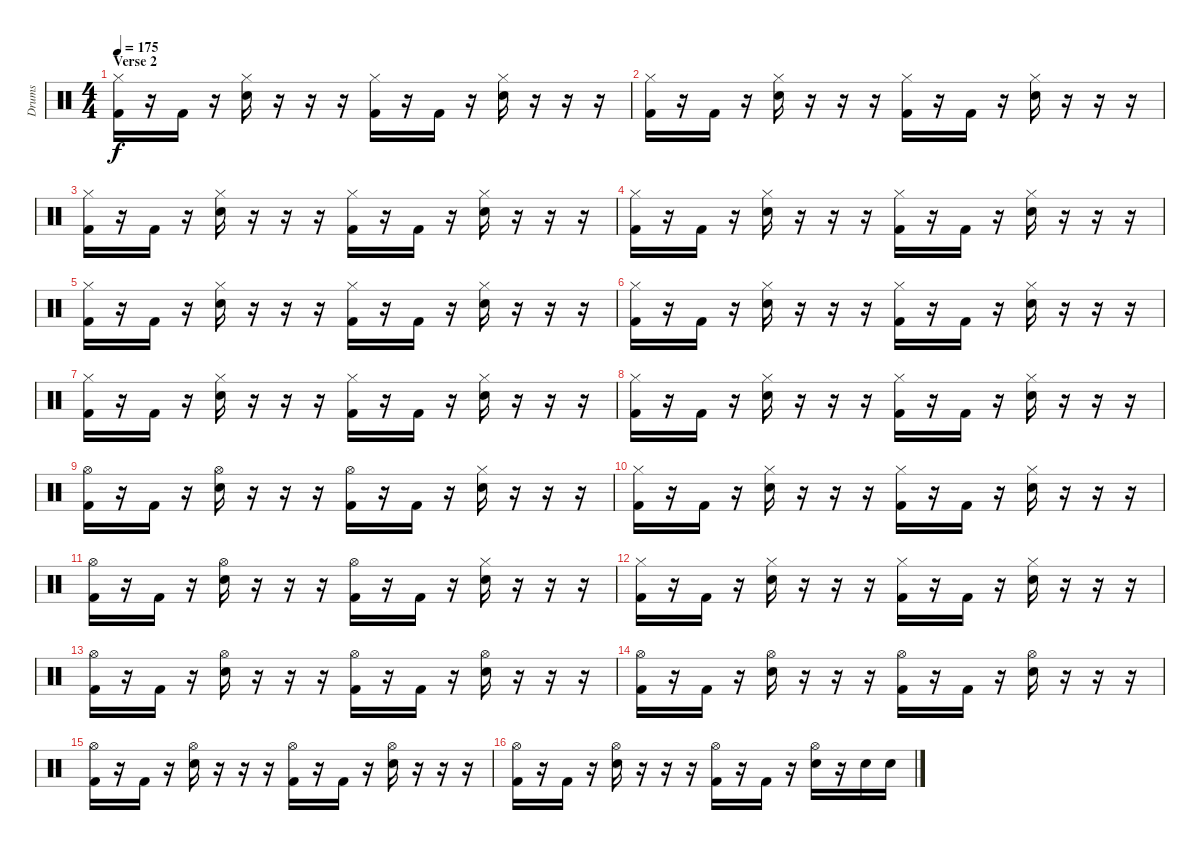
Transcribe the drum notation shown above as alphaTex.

\track ("Drums" "Drums") {instrument percussion}
\staff {score}
\articulation defaults
\ts (4 4)
\section ("" "Verse 2")
\tempo 175
\clef neutral
\ks c
("Hi-Hat (closed)" "Kick (hit) 2").16{dy f} r.16 "Kick (hit) 2".16 r.16 ("Hi-Hat (closed)" "Snare (hit) 2").16 r.16 r.16 r.16 ("Hi-Hat (closed)" "Kick (hit) 2").16 r.16 "Kick (hit) 2".16 r.16 ("Hi-Hat (closed)" "Snare (hit) 2").16 r.16 r.16 r.16 |
("Hi-Hat (closed)" "Kick (hit) 2").16 r.16 "Kick (hit) 2".16 r.16 ("Hi-Hat (closed)" "Snare (hit) 2").16 r.16 r.16 r.16 ("Hi-Hat (closed)" "Kick (hit) 2").16 r.16 "Kick (hit) 2".16 r.16 ("Hi-Hat (closed)" "Snare (hit) 2").16 r.16 r.16 r.16 |
("Hi-Hat (closed)" "Kick (hit) 2").16 r.16 "Kick (hit) 2".16 r.16 ("Hi-Hat (closed)" "Snare (hit) 2").16 r.16 r.16 r.16 ("Hi-Hat (closed)" "Kick (hit) 2").16 r.16 "Kick (hit) 2".16 r.16 ("Hi-Hat (closed)" "Snare (hit) 2").16 r.16 r.16 r.16 |
("Hi-Hat (closed)" "Kick (hit) 2").16 r.16 "Kick (hit) 2".16 r.16 ("Hi-Hat (closed)" "Snare (hit) 2").16 r.16 r.16 r.16 ("Hi-Hat (closed)" "Kick (hit) 2").16 r.16 "Kick (hit) 2".16 r.16 ("Hi-Hat (closed)" "Snare (hit) 2").16 r.16 r.16 r.16 |
("Hi-Hat (closed)" "Kick (hit) 2").16 r.16 "Kick (hit) 2".16 r.16 ("Hi-Hat (closed)" "Snare (hit) 2").16 r.16 r.16 r.16 ("Hi-Hat (closed)" "Kick (hit) 2").16 r.16 "Kick (hit) 2".16 r.16 ("Hi-Hat (closed)" "Snare (hit) 2").16 r.16 r.16 r.16 |
("Hi-Hat (closed)" "Kick (hit) 2").16 r.16 "Kick (hit) 2".16 r.16 ("Hi-Hat (closed)" "Snare (hit) 2").16 r.16 r.16 r.16 ("Hi-Hat (closed)" "Kick (hit) 2").16 r.16 "Kick (hit) 2".16 r.16 ("Hi-Hat (closed)" "Snare (hit) 2").16 r.16 r.16 r.16 |
("Hi-Hat (closed)" "Kick (hit) 2").16 r.16 "Kick (hit) 2".16 r.16 ("Hi-Hat (closed)" "Snare (hit) 2").16 r.16 r.16 r.16 ("Hi-Hat (closed)" "Kick (hit) 2").16 r.16 "Kick (hit) 2".16 r.16 ("Hi-Hat (closed)" "Snare (hit) 2").16 r.16 r.16 r.16 |
("Hi-Hat (closed)" "Kick (hit) 2").16 r.16 "Kick (hit) 2".16 r.16 ("Hi-Hat (closed)" "Snare (hit) 2").16 r.16 r.16 r.16 ("Hi-Hat (closed)" "Kick (hit) 2").16 r.16 "Kick (hit) 2".16 r.16 ("Hi-Hat (closed)" "Snare (hit) 2").16 r.16 r.16 r.16 |
("Hi-Hat (open)" "Kick (hit) 2").16 r.16 "Kick (hit) 2".16 r.16 ("Hi-Hat (open)" "Snare (hit) 2").16 r.16 r.16 r.16 ("Hi-Hat (open)" "Kick (hit) 2").16 r.16 "Kick (hit) 2".16 r.16 ("Hi-Hat (closed)" "Snare (hit) 2").16 r.16 r.16 r.16 |
("Hi-Hat (closed)" "Kick (hit) 2").16 r.16 "Kick (hit) 2".16 r.16 ("Hi-Hat (closed)" "Snare (hit) 2").16 r.16 r.16 r.16 ("Hi-Hat (closed)" "Kick (hit) 2").16 r.16 "Kick (hit) 2".16 r.16 ("Hi-Hat (closed)" "Snare (hit) 2").16 r.16 r.16 r.16 |
("Hi-Hat (open)" "Kick (hit) 2").16 r.16 "Kick (hit) 2".16 r.16 ("Hi-Hat (open)" "Snare (hit) 2").16 r.16 r.16 r.16 ("Hi-Hat (open)" "Kick (hit) 2").16 r.16 "Kick (hit) 2".16 r.16 ("Hi-Hat (closed)" "Snare (hit) 2").16 r.16 r.16 r.16 |
("Hi-Hat (closed)" "Kick (hit) 2").16 r.16 "Kick (hit) 2".16 r.16 ("Hi-Hat (closed)" "Snare (hit) 2").16 r.16 r.16 r.16 ("Hi-Hat (closed)" "Kick (hit) 2").16 r.16 "Kick (hit) 2".16 r.16 ("Hi-Hat (closed)" "Snare (hit) 2").16 r.16 r.16 r.16 |
("Hi-Hat (open)" "Kick (hit) 2").16 r.16 "Kick (hit) 2".16 r.16 ("Hi-Hat (open)" "Snare (hit) 2").16 r.16 r.16 r.16 ("Hi-Hat (open)" "Kick (hit) 2").16 r.16 "Kick (hit) 2".16 r.16 ("Hi-Hat (open)" "Snare (hit) 2").16 r.16 r.16 r.16 |
("Hi-Hat (open)" "Kick (hit) 2").16 r.16 "Kick (hit) 2".16 r.16 ("Hi-Hat (open)" "Snare (hit) 2").16 r.16 r.16 r.16 ("Hi-Hat (open)" "Kick (hit) 2").16 r.16 "Kick (hit) 2".16 r.16 ("Hi-Hat (open)" "Snare (hit) 2").16 r.16 r.16 r.16 |
("Hi-Hat (open)" "Kick (hit) 2").16 r.16 "Kick (hit) 2".16 r.16 ("Hi-Hat (open)" "Snare (hit) 2").16 r.16 r.16 r.16 ("Hi-Hat (open)" "Kick (hit) 2").16 r.16 "Kick (hit) 2".16 r.16 ("Hi-Hat (open)" "Snare (hit) 2").16 r.16 r.16 r.16 |
("Hi-Hat (open)" "Kick (hit) 2").16 r.16 "Kick (hit) 2".16 r.16 ("Hi-Hat (open)" "Snare (hit) 2").16 r.16 r.16 r.16 ("Hi-Hat (open)" "Kick (hit) 2").16 r.16 "Kick (hit) 2".16 r.16 ("Hi-Hat (open)" "Snare (hit) 2").16 r.16 "Snare (hit) 2".16 "Snare (hit) 2".16
